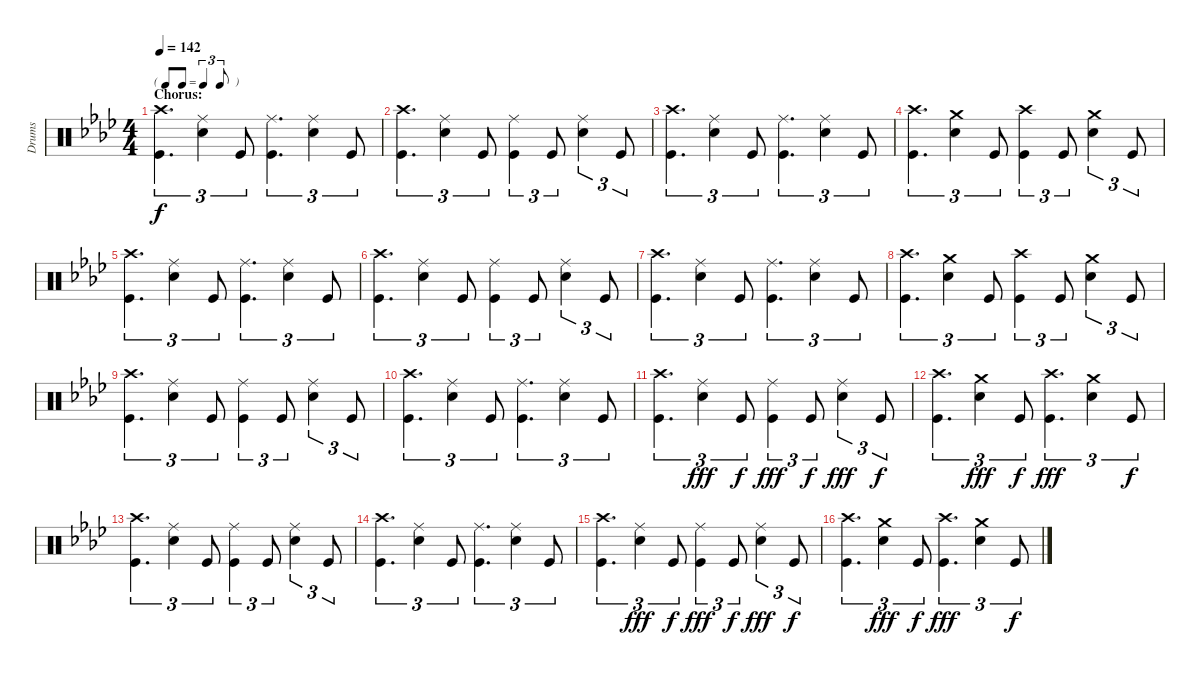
\track ("Drums" "Drums") {instrument percussion}
\staff {score}
\articulation defaults
\ts (4 4)
\tf triplet8th
\section ("" "Chorus:")
\tempo 142
\clef neutral
\ks ab
("Crash high (hit)" "Kick (hit)").4{d tu (3 2) dy f} ("Snare (hit) 2" "Ride (middle)").4{tu (3 2)} "Kick (hit)".8{tu (3 2)} ("Kick (hit)" "Ride (middle)").4{d tu (3 2)} ("Snare (hit) 2" "Ride (middle)").4{tu (3 2)} "Kick (hit)".8{tu (3 2)} |
("Kick (hit)" "Crash high (hit)").4{d tu (3 2)} ("Snare (hit) 2" "Ride (middle)").4{tu (3 2)} "Kick (hit)".8{tu (3 2)} ("Kick (hit)" "Ride (middle)").4{tu (3 2)} "Kick (hit)".8{tu (3 2)} ("Snare (hit) 2" "Ride (middle)").4{tu (3 2)} "Kick (hit)".8{tu (3 2)} |
("Crash high (hit)" "Kick (hit)").4{d tu (3 2)} ("Snare (hit) 2" "Ride (middle)").4{tu (3 2)} "Kick (hit)".8{tu (3 2)} ("Kick (hit)" "Ride (middle)").4{d tu (3 2)} ("Snare (hit) 2" "Ride (middle)").4{tu (3 2)} "Kick (hit)".8{tu (3 2)} |
("Kick (hit)" "Crash high (hit)").4{d tu (3 2)} ("Snare (hit) 2" "Crash medium (hit)").4{tu (3 2)} "Kick (hit)".8{tu (3 2)} ("Kick (hit)" "Crash high (hit)").4{tu (3 2)} "Kick (hit)".8{tu (3 2)} ("Snare (hit) 2" "Crash medium (hit)").4{tu (3 2)} "Kick (hit)".8{tu (3 2)} |
("Crash high (hit)" "Kick (hit)").4{d tu (3 2)} ("Snare (hit) 2" "Ride (middle)").4{tu (3 2)} "Kick (hit)".8{tu (3 2)} ("Kick (hit)" "Ride (middle)").4{d tu (3 2)} ("Snare (hit) 2" "Ride (middle)").4{tu (3 2)} "Kick (hit)".8{tu (3 2)} |
("Kick (hit)" "Crash high (hit)").4{d tu (3 2)} ("Snare (hit) 2" "Ride (middle)").4{tu (3 2)} "Kick (hit)".8{tu (3 2)} ("Kick (hit)" "Ride (middle)").4{tu (3 2)} "Kick (hit)".8{tu (3 2)} ("Snare (hit) 2" "Ride (middle)").4{tu (3 2)} "Kick (hit)".8{tu (3 2)} |
("Crash high (hit)" "Kick (hit)").4{d tu (3 2)} ("Snare (hit) 2" "Ride (middle)").4{tu (3 2)} "Kick (hit)".8{tu (3 2)} ("Kick (hit)" "Ride (middle)").4{d tu (3 2)} ("Snare (hit) 2" "Ride (middle)").4{tu (3 2)} "Kick (hit)".8{tu (3 2)} |
("Kick (hit)" "Crash high (hit)").4{d tu (3 2)} ("Snare (hit) 2" "Crash medium (hit)").4{tu (3 2)} "Kick (hit)".8{tu (3 2)} ("Kick (hit)" "Crash high (hit)").4{tu (3 2)} "Kick (hit)".8{tu (3 2)} ("Snare (hit) 2" "Crash medium (hit)").4{tu (3 2)} "Kick (hit)".8{tu (3 2)} |
("Kick (hit)" "Crash high (hit)").4{d tu (3 2)} ("Snare (hit) 2" "Ride (middle)").4{tu (3 2)} "Kick (hit)".8{tu (3 2)} ("Kick (hit)" "Ride (middle)").4{tu (3 2)} "Kick (hit)".8{tu (3 2)} ("Snare (hit) 2" "Ride (middle)").4{tu (3 2)} "Kick (hit)".8{tu (3 2)} |
("Crash high (hit)" "Kick (hit)").4{d tu (3 2)} ("Snare (hit) 2" "Ride (middle)").4{tu (3 2)} "Kick (hit)".8{tu (3 2)} ("Kick (hit)" "Ride (middle)").4{d tu (3 2)} ("Snare (hit) 2" "Ride (middle)").4{tu (3 2)} "Kick (hit)".8{tu (3 2)} |
("Kick (hit)" "Crash high (hit)").4{d tu (3 2)} ("Snare (hit) 2" "Ride (middle)").4{tu (3 2) dy fff} "Kick (hit)".8{tu (3 2) dy f} ("Kick (hit)" "Ride (middle)").4{tu (3 2) dy fff} "Kick (hit)".8{tu (3 2) dy f} ("Snare (hit) 2" "Ride (middle)").4{tu (3 2) dy fff} "Kick (hit)".8{tu (3 2) dy f} |
("Crash high (hit)" "Kick (hit)").4{d tu (3 2)} ("Snare (hit) 2" "Crash medium (hit)").4{tu (3 2) dy fff} "Kick (hit)".8{tu (3 2) dy f} ("Kick (hit)" "Crash high (hit)").4{d tu (3 2) dy fff} ("Snare (hit) 2" "Crash medium (hit)").4{tu (3 2)} "Kick (hit)".8{tu (3 2) dy f} |
("Kick (hit)" "Crash high (hit)").4{d tu (3 2)} ("Snare (hit) 2" "Ride (middle)").4{tu (3 2)} "Kick (hit)".8{tu (3 2)} ("Kick (hit)" "Ride (middle)").4{tu (3 2)} "Kick (hit)".8{tu (3 2)} ("Snare (hit) 2" "Ride (middle)").4{tu (3 2)} "Kick (hit)".8{tu (3 2)} |
("Crash high (hit)" "Kick (hit)").4{d tu (3 2)} ("Snare (hit) 2" "Ride (middle)").4{tu (3 2)} "Kick (hit)".8{tu (3 2)} ("Kick (hit)" "Ride (middle)").4{d tu (3 2)} ("Snare (hit) 2" "Ride (middle)").4{tu (3 2)} "Kick (hit)".8{tu (3 2)} |
("Kick (hit)" "Crash high (hit)").4{d tu (3 2)} ("Snare (hit) 2" "Ride (middle)").4{tu (3 2) dy fff} "Kick (hit)".8{tu (3 2) dy f} ("Kick (hit)" "Ride (middle)").4{tu (3 2) dy fff} "Kick (hit)".8{tu (3 2) dy f} ("Snare (hit) 2" "Ride (middle)").4{tu (3 2) dy fff} "Kick (hit)".8{tu (3 2) dy f} |
("Crash high (hit)" "Kick (hit)").4{d tu (3 2)} ("Snare (hit) 2" "Crash medium (hit)").4{tu (3 2) dy fff} "Kick (hit)".8{tu (3 2) dy f} ("Kick (hit)" "Crash high (hit)").4{d tu (3 2) dy fff} ("Snare (hit) 2" "Crash medium (hit)").4{tu (3 2)} "Kick (hit)".8{tu (3 2) dy f}
